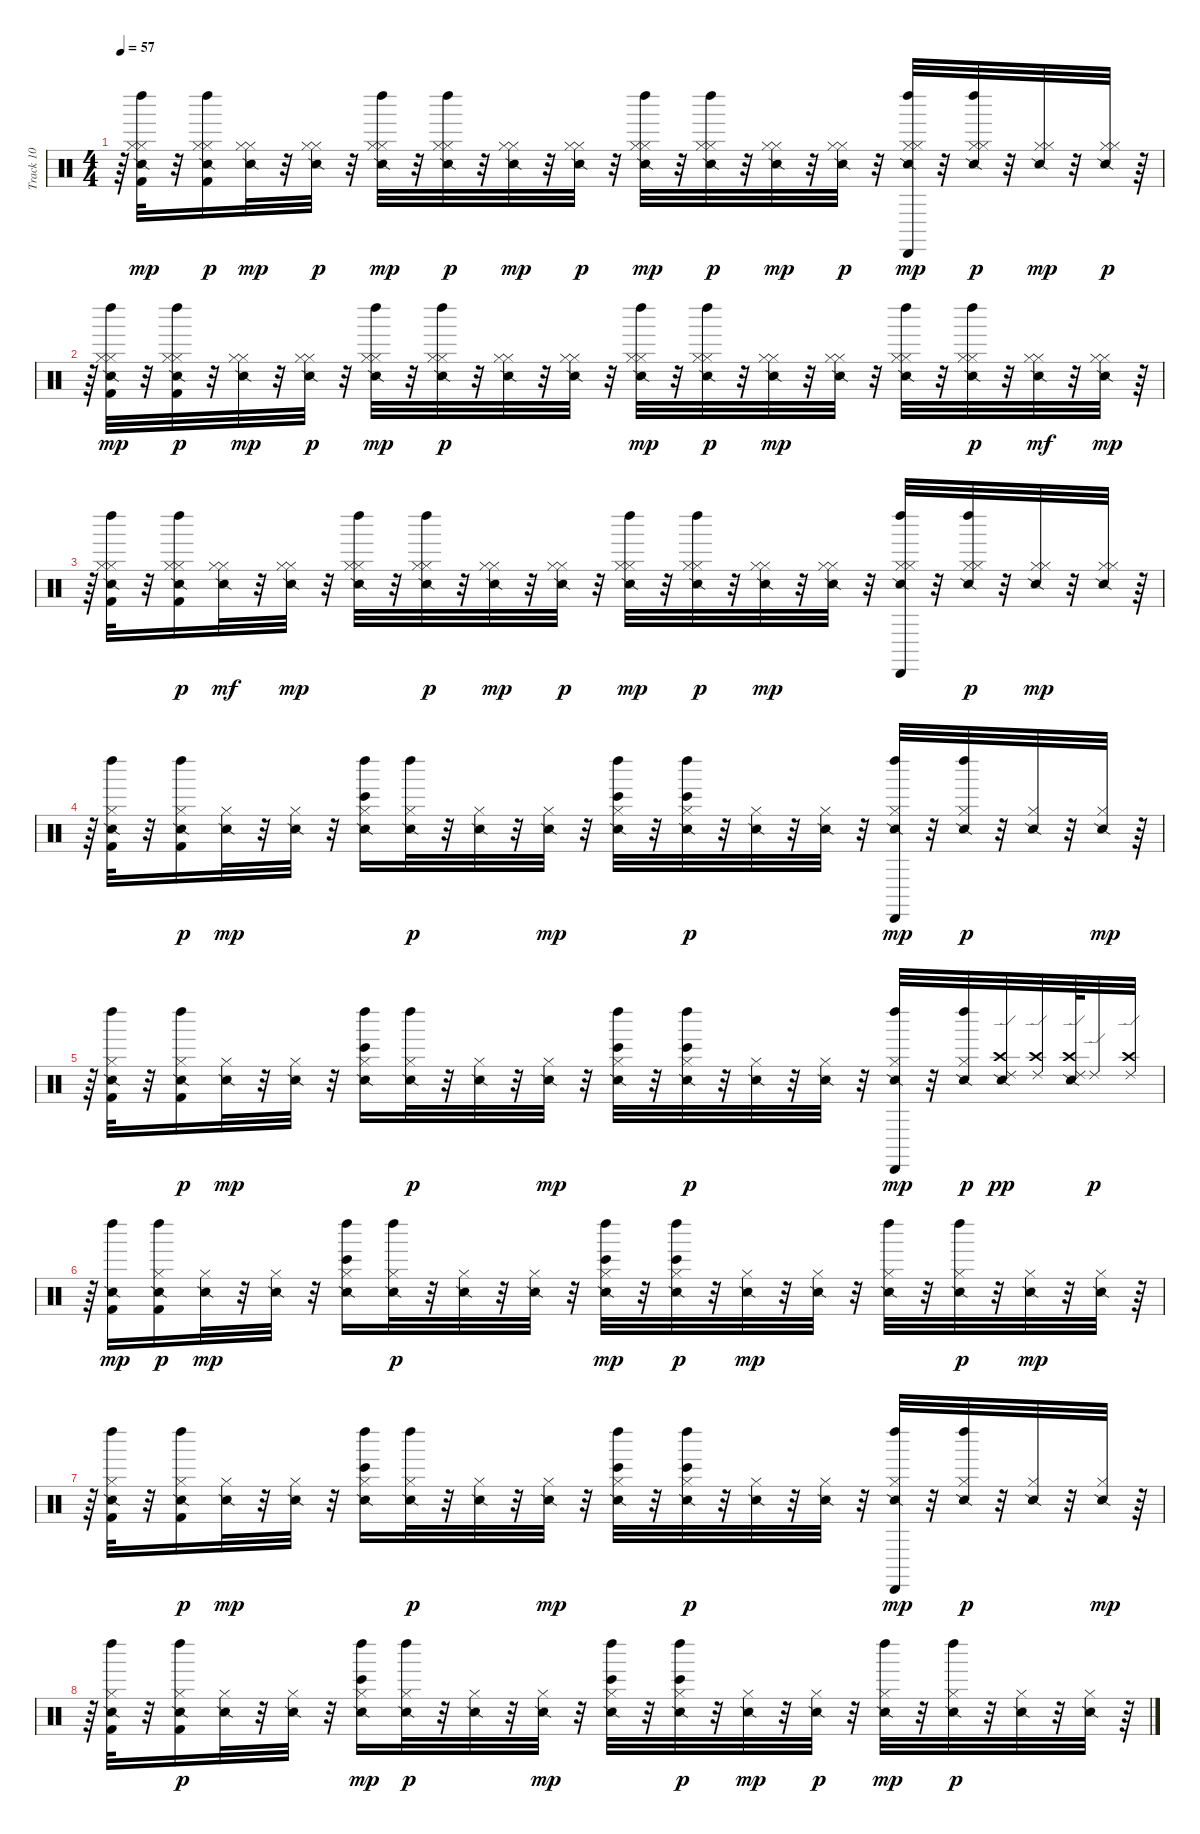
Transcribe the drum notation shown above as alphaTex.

\track ("Track 10" "Track 10") {instrument percussion}
\staff {score}
\articulation defaults
\ts (4 4)
\tempo 57
\clef neutral
\ks c
r.64{dy mp} ("Snare (side stick) 2" "Kick (hit) 2" "Hi-Hat (closed)" "Hi-Hat (closed)" "Left Maraca (hit)").32 r.32 ("Snare (side stick) 2" "Kick (hit) 2" "Hi-Hat (closed)" "Hi-Hat (closed)" "Left Maraca (hit)").16{dy p} ("Snare (side stick) 2" "Hi-Hat (closed)" "Hi-Hat (closed)").32{dy mp} r.32 ("Snare (side stick) 2" "Hi-Hat (closed)" "Hi-Hat (closed)").32{dy p} r.32 ("Snare (side stick) 2" "Hi-Hat (closed)" "Hi-Hat (closed)" "Left Maraca (hit)").32{dy mp} r.32 ("Snare (side stick) 2" "Hi-Hat (closed)" "Hi-Hat (closed)" "Left Maraca (hit)").32{dy p} r.32 ("Snare (side stick) 2" "Hi-Hat (closed)" "Hi-Hat (closed)").32{dy mp} r.32 ("Snare (side stick) 2" "Hi-Hat (closed)" "Hi-Hat (closed)").32{dy p} r.32 ("Snare (side stick) 2" "Hi-Hat (closed)" "Hi-Hat (closed)" "Left Maraca (hit)").32{dy mp} r.32 ("Snare (side stick) 2" "Hi-Hat (closed)" "Hi-Hat (closed)" "Left Maraca (hit)").32{dy p} r.32 ("Snare (side stick) 2" "Hi-Hat (closed)" "Hi-Hat (closed)").32{dy mp} r.32 ("Snare (side stick) 2" "Hi-Hat (closed)" "Hi-Hat (closed)").32{dy p} r.32 ("Snare (side stick) 2" "Hi-Hat (closed)" "Hi-Hat (closed)" "Left Maraca (hit)" "Cabasa (hit)").32{dy mp} r.32 ("Snare (side stick) 2" "Hi-Hat (closed)" "Hi-Hat (closed)" "Left Maraca (hit)").32{dy p} r.32 ("Snare (side stick) 2" "Hi-Hat (closed)" "Hi-Hat (closed)").32{dy mp} r.32 ("Snare (side stick) 2" "Hi-Hat (closed)" "Hi-Hat (closed)").32{dy p} r.64 |
r.64 ("Snare (side stick) 2" "Kick (hit) 2" "Hi-Hat (closed)" "Hi-Hat (closed)" "Left Maraca (hit)").32{dy mp} r.32 ("Snare (side stick) 2" "Kick (hit) 2" "Hi-Hat (closed)" "Hi-Hat (closed)" "Left Maraca (hit)").32{dy p} r.32 ("Snare (side stick) 2" "Hi-Hat (closed)" "Hi-Hat (closed)").32{dy mp} r.32 ("Snare (side stick) 2" "Hi-Hat (closed)" "Hi-Hat (closed)").32{dy p} r.32 ("Snare (side stick) 2" "Hi-Hat (closed)" "Hi-Hat (closed)" "Left Maraca (hit)").32{dy mp} r.32 ("Snare (side stick) 2" "Hi-Hat (closed)" "Hi-Hat (closed)" "Left Maraca (hit)").32{dy p} r.32 ("Snare (side stick) 2" "Hi-Hat (closed)" "Hi-Hat (closed)").32 r.32 ("Snare (side stick) 2" "Hi-Hat (closed)" "Hi-Hat (closed)").32 r.32 ("Snare (side stick) 2" "Hi-Hat (closed)" "Hi-Hat (closed)" "Left Maraca (hit)").32{dy mp} r.32 ("Snare (side stick) 2" "Hi-Hat (closed)" "Hi-Hat (closed)" "Left Maraca (hit)").32{dy p} r.32 ("Snare (side stick) 2" "Hi-Hat (closed)" "Hi-Hat (closed)").32{dy mp} r.32 ("Snare (side stick) 2" "Hi-Hat (closed)" "Hi-Hat (closed)").32 r.32 ("Snare (side stick) 2" "Hi-Hat (closed)" "Hi-Hat (closed)" "Left Maraca (hit)").32 r.32 ("Snare (side stick) 2" "Hi-Hat (closed)" "Hi-Hat (closed)" "Left Maraca (hit)").32{dy p} r.32 ("Snare (side stick) 2" "Hi-Hat (closed)" "Hi-Hat (closed)").32{dy mf} r.32 ("Snare (side stick) 2" "Hi-Hat (closed)" "Hi-Hat (closed)").32{dy mp} r.64 |
r.64 ("Snare (side stick) 2" "Kick (hit) 2" "Hi-Hat (closed)" "Hi-Hat (closed)" "Left Maraca (hit)").32 r.32 ("Snare (side stick) 2" "Kick (hit) 2" "Hi-Hat (closed)" "Hi-Hat (closed)" "Left Maraca (hit)").16{dy p} ("Snare (side stick) 2" "Hi-Hat (closed)" "Hi-Hat (closed)").32{dy mf} r.32 ("Snare (side stick) 2" "Hi-Hat (closed)" "Hi-Hat (closed)").32{dy mp} r.32 ("Snare (side stick) 2" "Hi-Hat (closed)" "Hi-Hat (closed)" "Left Maraca (hit)").32 r.32 ("Snare (side stick) 2" "Hi-Hat (closed)" "Hi-Hat (closed)" "Left Maraca (hit)").32{dy p} r.32 ("Snare (side stick) 2" "Hi-Hat (closed)" "Hi-Hat (closed)").32{dy mp} r.32 ("Snare (side stick) 2" "Hi-Hat (closed)" "Hi-Hat (closed)").32{dy p} r.32 ("Snare (side stick) 2" "Hi-Hat (closed)" "Hi-Hat (closed)" "Left Maraca (hit)").32{dy mp} r.32 ("Snare (side stick) 2" "Hi-Hat (closed)" "Hi-Hat (closed)" "Left Maraca (hit)").32{dy p} r.32 ("Snare (side stick) 2" "Hi-Hat (closed)" "Hi-Hat (closed)").32{dy mp} r.32 ("Snare (side stick) 2" "Hi-Hat (closed)" "Hi-Hat (closed)").32 r.32 ("Snare (side stick) 2" "Hi-Hat (closed)" "Hi-Hat (closed)" "Left Maraca (hit)" "Cabasa (hit)").32 r.32 ("Snare (side stick) 2" "Hi-Hat (closed)" "Hi-Hat (closed)" "Left Maraca (hit)").32{dy p} r.32 ("Snare (side stick) 2" "Hi-Hat (closed)" "Hi-Hat (closed)").32{dy mp} r.32 ("Snare (side stick) 2" "Hi-Hat (closed)" "Hi-Hat (closed)").32 r.64 |
r.64 ("Snare (side stick) 2" "Kick (hit) 2" "Hi-Hat (closed)" "Left Maraca (hit)").32 r.32 ("Snare (side stick) 2" "Kick (hit) 2" "Hi-Hat (closed)" "Left Maraca (hit)").16{dy p} ("Snare (side stick) 2" "Hi-Hat (closed)").32{dy mp} r.32 ("Snare (side stick) 2" "Hi-Hat (closed)").32 r.32 ("Bongo High (hit)" "Snare (side stick) 2" "Hi-Hat (closed)" "Left Maraca (hit)").16 ("Snare (side stick) 2" "Hi-Hat (closed)" "Left Maraca (hit)").32{dy p} r.32 ("Snare (side stick) 2" "Hi-Hat (closed)").32 r.32 ("Snare (side stick) 2" "Hi-Hat (closed)").32{dy mp} r.32 ("Bongo High (hit)" "Snare (side stick) 2" "Hi-Hat (closed)" "Left Maraca (hit)").32 r.32 ("Bongo High (hit)" "Snare (side stick) 2" "Hi-Hat (closed)" "Left Maraca (hit)").32{dy p} r.32 ("Snare (side stick) 2" "Hi-Hat (closed)").32 r.32 ("Snare (side stick) 2" "Hi-Hat (closed)").32 r.32 ("Snare (side stick) 2" "Hi-Hat (closed)" "Left Maraca (hit)" "Cabasa (hit)").32{dy mp} r.32 ("Snare (side stick) 2" "Hi-Hat (closed)" "Left Maraca (hit)").32{dy p} r.32 ("Snare (side stick) 2" "Hi-Hat (closed)").32 r.32 ("Snare (side stick) 2" "Hi-Hat (closed)").32{dy mp} r.64 |
r.64 ("Snare (side stick) 2" "Kick (hit) 2" "Hi-Hat (closed)" "Left Maraca (hit)").32 r.32 ("Snare (side stick) 2" "Kick (hit) 2" "Hi-Hat (closed)" "Left Maraca (hit)").16{dy p} ("Snare (side stick) 2" "Hi-Hat (closed)").32{dy mp} r.32 ("Snare (side stick) 2" "Hi-Hat (closed)").32 r.32 ("Bongo High (hit)" "Snare (side stick) 2" "Hi-Hat (closed)" "Left Maraca (hit)").16 ("Snare (side stick) 2" "Hi-Hat (closed)" "Left Maraca (hit)").32{dy p} r.32 ("Snare (side stick) 2" "Hi-Hat (closed)").32 r.32 ("Snare (side stick) 2" "Hi-Hat (closed)").32{dy mp} r.32 ("Bongo High (hit)" "Snare (side stick) 2" "Hi-Hat (closed)" "Left Maraca (hit)").32 r.32 ("Bongo High (hit)" "Snare (side stick) 2" "Hi-Hat (closed)" "Left Maraca (hit)").32{dy p} r.32 ("Snare (side stick) 2" "Hi-Hat (closed)").32 r.32 ("Snare (side stick) 2" "Hi-Hat (closed)").32 r.32 ("Snare (side stick) 2" "Hi-Hat (closed)" "Left Maraca (hit)" "Cabasa (hit)").32{dy mp} r.32 ("Snare (side stick) 2" "Hi-Hat (closed)" "Left Maraca (hit)").32{dy p} ("Ride (edge) 2" "Crash high (hit)" "Snare (side stick) 2").32{dy pp} ("Ride (edge) 2" "Crash high (hit)").32 ("Ride (edge) 2" "Crash high (hit)" "Snare (side stick) 2").64 "Ride (edge) 2".32{dy p} ("Crash high (hit)" "Ride (edge) 2").32 |
r.64 ("Snare (side stick) 2" "Kick (hit) 2" "Left Maraca (hit)").16{dy mp} ("Snare (side stick) 2" "Kick (hit) 2" "Hi-Hat (closed)" "Left Maraca (hit)").16{dy p} ("Snare (side stick) 2" "Hi-Hat (closed)").32{dy mp} r.32 ("Snare (side stick) 2" "Hi-Hat (closed)").32 r.32 ("Bongo High (hit)" "Snare (side stick) 2" "Hi-Hat (closed)" "Left Maraca (hit)").16 ("Snare (side stick) 2" "Hi-Hat (closed)" "Left Maraca (hit)").32{dy p} r.32 ("Snare (side stick) 2" "Hi-Hat (closed)").32 r.32 ("Snare (side stick) 2" "Hi-Hat (closed)").32 r.32 ("Bongo High (hit)" "Snare (side stick) 2" "Hi-Hat (closed)" "Left Maraca (hit)").32{dy mp} r.32 ("Bongo High (hit)" "Snare (side stick) 2" "Hi-Hat (closed)" "Left Maraca (hit)").32{dy p} r.32 ("Snare (side stick) 2" "Hi-Hat (closed)").32{dy mp} r.32 ("Snare (side stick) 2" "Hi-Hat (closed)").32 r.32 ("Snare (side stick) 2" "Hi-Hat (closed)" "Left Maraca (hit)").32 r.32 ("Snare (side stick) 2" "Hi-Hat (closed)" "Left Maraca (hit)").32{dy p} r.32 ("Snare (side stick) 2" "Hi-Hat (closed)").32{dy mp} r.32 ("Snare (side stick) 2" "Hi-Hat (closed)").32 r.64 |
r.64 ("Snare (side stick) 2" "Kick (hit) 2" "Hi-Hat (closed)" "Left Maraca (hit)").32 r.32 ("Snare (side stick) 2" "Kick (hit) 2" "Hi-Hat (closed)" "Left Maraca (hit)").16{dy p} ("Snare (side stick) 2" "Hi-Hat (closed)").32{dy mp} r.32 ("Snare (side stick) 2" "Hi-Hat (closed)").32 r.32 ("Bongo High (hit)" "Snare (side stick) 2" "Hi-Hat (closed)" "Left Maraca (hit)").16 ("Snare (side stick) 2" "Hi-Hat (closed)" "Left Maraca (hit)").32{dy p} r.32 ("Snare (side stick) 2" "Hi-Hat (closed)").32 r.32 ("Snare (side stick) 2" "Hi-Hat (closed)").32{dy mp} r.32 ("Bongo High (hit)" "Snare (side stick) 2" "Hi-Hat (closed)" "Left Maraca (hit)").32 r.32 ("Bongo High (hit)" "Snare (side stick) 2" "Hi-Hat (closed)" "Left Maraca (hit)").32{dy p} r.32 ("Snare (side stick) 2" "Hi-Hat (closed)").32 r.32 ("Snare (side stick) 2" "Hi-Hat (closed)").32 r.32 ("Snare (side stick) 2" "Hi-Hat (closed)" "Left Maraca (hit)" "Cabasa (hit)").32{dy mp} r.32 ("Snare (side stick) 2" "Hi-Hat (closed)" "Left Maraca (hit)").32{dy p} r.32 ("Snare (side stick) 2" "Hi-Hat (closed)").32 r.32 ("Snare (side stick) 2" "Hi-Hat (closed)").32{dy mp} r.64 |
r.64 ("Snare (side stick) 2" "Kick (hit) 2" "Hi-Hat (closed)" "Left Maraca (hit)").32 r.32 ("Snare (side stick) 2" "Kick (hit) 2" "Hi-Hat (closed)" "Left Maraca (hit)").16{dy p} ("Snare (side stick) 2" "Hi-Hat (closed)").32 r.32 ("Snare (side stick) 2" "Hi-Hat (closed)").32 r.32 ("Bongo High (hit)" "Snare (side stick) 2" "Hi-Hat (closed)" "Left Maraca (hit)").16{dy mp} ("Snare (side stick) 2" "Hi-Hat (closed)" "Left Maraca (hit)").32{dy p} r.32 ("Snare (side stick) 2" "Hi-Hat (closed)").32 r.32 ("Snare (side stick) 2" "Hi-Hat (closed)").32{dy mp} r.32 ("Bongo High (hit)" "Snare (side stick) 2" "Hi-Hat (closed)" "Left Maraca (hit)").32 r.32 ("Bongo High (hit)" "Snare (side stick) 2" "Hi-Hat (closed)" "Left Maraca (hit)").32{dy p} r.32 ("Snare (side stick) 2" "Hi-Hat (closed)").32{dy mp} r.32 ("Snare (side stick) 2" "Hi-Hat (closed)").32{dy p} r.32 ("Snare (side stick) 2" "Hi-Hat (closed)" "Left Maraca (hit)").32{dy mp} r.32 ("Snare (side stick) 2" "Hi-Hat (closed)" "Left Maraca (hit)").32{dy p} r.32 ("Snare (side stick) 2" "Hi-Hat (closed)").32 r.32 ("Snare (side stick) 2" "Hi-Hat (closed)").32 r.64
